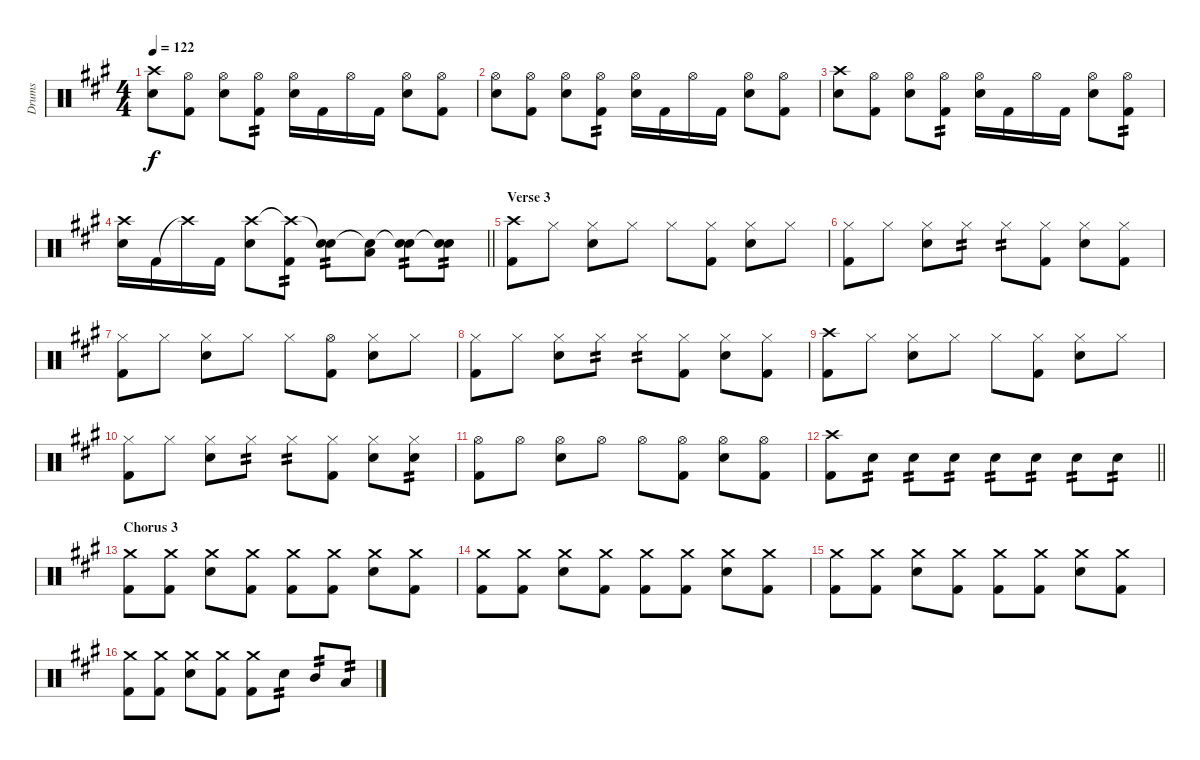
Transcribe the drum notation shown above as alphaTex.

\track ("Drums" "Drums") {instrument percussion}
\staff {score}
\articulation defaults
\ts (4 4)
\tempo 122
\clef neutral
\ks f#minor
("Crash high (hit)" "Snare (hit) 2").8{dy f} ("Hi-Hat (open)" "Kick (hit) 2").8 ("Hi-Hat (open)" "Snare (hit) 2").8 ("Hi-Hat (open)" "Kick (hit) 2").8{tp 2} ("Hi-Hat (open)" "Snare (hit) 2").16 "Kick (hit) 2".16 "Hi-Hat (open)".16 "Kick (hit) 2".16 ("Hi-Hat (open)" "Snare (hit) 2").8 ("Hi-Hat (open)" "Kick (hit) 2").8 |
("Hi-Hat (open)" "Snare (hit) 2").8 ("Hi-Hat (open)" "Kick (hit) 2").8 ("Hi-Hat (open)" "Snare (hit) 2").8 ("Hi-Hat (open)" "Kick (hit) 2").8{tp 2} ("Hi-Hat (open)" "Snare (hit) 2").16 "Kick (hit) 2".16 "Hi-Hat (open)".16 "Kick (hit) 2".16 ("Hi-Hat (open)" "Snare (hit) 2").8 ("Hi-Hat (open)" "Kick (hit) 2").8 |
("Crash high (hit)" "Snare (hit) 2").8 ("Hi-Hat (open)" "Kick (hit) 2").8 ("Hi-Hat (open)" "Snare (hit) 2").8 ("Hi-Hat (open)" "Kick (hit) 2").8{tp 2} ("Hi-Hat (open)" "Snare (hit) 2").16 "Kick (hit) 2".16 "Hi-Hat (open)".16 "Kick (hit) 2".16 ("Hi-Hat (open)" "Snare (hit) 2").8 ("Hi-Hat (open)" "Kick (hit) 2").8{tp 2} |
\barLineRight lightlight
("Crash high (hit)" "Snare (hit) 2").16 "Kick (hit) 2".16 "Crash high (hit)"{t}.16 "Kick (hit) 2".16 ("Crash high (hit)" "Snare (hit) 2").8 ("Crash high (hit)"{t} "Kick (hit) 2").8{tp 2} ("Snare (hit)"{t} "Snare (hit) 2").8{tp 2} ("Snare (hit)"{t} "Low Tom (hit)").8 ("Snare (hit)"{t} "Snare (hit) 2").8{tp 2} ("Snare (hit)"{t} "Snare (hit) 2").8{tp 2} |
\section ("" "Verse 3")
("Crash high (hit)" "Kick (hit) 2").8 "Hi-Hat (closed)".8 ("Hi-Hat (closed)" "Snare (hit) 2").8 "Hi-Hat (closed)".8 "Hi-Hat (closed)".8 ("Hi-Hat (closed)" "Kick (hit) 2").8 ("Hi-Hat (closed)" "Snare (hit) 2").8 "Hi-Hat (closed)".8 |
("Hi-Hat (closed)" "Kick (hit) 2").8 "Hi-Hat (closed)".8 ("Hi-Hat (closed)" "Snare (hit) 2").8 "Hi-Hat (closed)".8{tp 2} "Hi-Hat (closed)".8{tp 2} ("Hi-Hat (closed)" "Kick (hit) 2").8 ("Hi-Hat (closed)" "Snare (hit) 2").8 ("Hi-Hat (closed)" "Kick (hit) 2").8 |
("Hi-Hat (closed)" "Kick (hit) 2").8 "Hi-Hat (closed)".8 ("Hi-Hat (closed)" "Snare (hit) 2").8 "Hi-Hat (closed)".8 "Hi-Hat (closed)".8 ("Hi-Hat (open)" "Kick (hit) 2").8 ("Hi-Hat (closed)" "Snare (hit) 2").8 "Hi-Hat (closed)".8 |
("Hi-Hat (closed)" "Kick (hit) 2").8 "Hi-Hat (closed)".8 ("Hi-Hat (closed)" "Snare (hit) 2").8 "Hi-Hat (closed)".8{tp 2} "Hi-Hat (closed)".8{tp 2} ("Hi-Hat (closed)" "Kick (hit) 2").8 ("Hi-Hat (closed)" "Snare (hit) 2").8 ("Hi-Hat (closed)" "Kick (hit) 2").8 |
("Crash high (hit)" "Kick (hit) 2").8 "Hi-Hat (closed)".8 ("Hi-Hat (closed)" "Snare (hit) 2").8 "Hi-Hat (closed)".8 "Hi-Hat (closed)".8 ("Hi-Hat (closed)" "Kick (hit) 2").8 ("Hi-Hat (closed)" "Snare (hit) 2").8 "Hi-Hat (closed)".8 |
("Hi-Hat (closed)" "Kick (hit) 2").8 "Hi-Hat (closed)".8 ("Hi-Hat (closed)" "Snare (hit) 2").8 "Hi-Hat (closed)".8{tp 2} "Hi-Hat (closed)".8{tp 2} ("Hi-Hat (closed)" "Kick (hit) 2").8 ("Hi-Hat (closed)" "Snare (hit) 2").8 ("Hi-Hat (closed)" "Snare (hit) 2").8{tp 2} |
("Hi-Hat (open)" "Kick (hit) 2").8 "Hi-Hat (open)".8 ("Hi-Hat (open)" "Snare (hit) 2").8 "Hi-Hat (open)".8 "Hi-Hat (open)".8 ("Hi-Hat (open)" "Kick (hit) 2").8 ("Hi-Hat (open)" "Snare (hit) 2").8 ("Hi-Hat (open)" "Kick (hit) 2").8 |
\barLineRight lightlight
("Crash high (hit)" "Kick (hit) 2").8 "Snare (hit) 2".8{tp 2} "Snare (hit) 2".8{tp 2} "Snare (hit) 2".8{tp 2} "Snare (hit) 2".8{tp 2} "Snare (hit) 2".8{tp 2} "Snare (hit) 2".8{tp 2} "Snare (hit) 2".8{tp 2} |
\section ("" "Chorus 3")
("Crash medium (hit)" "Kick (hit) 2").8 ("Crash medium (hit)" "Kick (hit) 2").8 ("Crash medium (hit)" "Snare (hit) 2").8 ("Crash medium (hit)" "Kick (hit) 2").8 ("Crash medium (hit)" "Kick (hit) 2").8 ("Crash medium (hit)" "Kick (hit) 2").8 ("Crash medium (hit)" "Snare (hit) 2").8 ("Crash medium (hit)" "Kick (hit) 2").8 |
("Crash medium (hit)" "Kick (hit) 2").8 ("Crash medium (hit)" "Kick (hit) 2").8 ("Crash medium (hit)" "Snare (hit) 2").8 ("Crash medium (hit)" "Kick (hit) 2").8 ("Crash medium (hit)" "Kick (hit) 2").8 ("Crash medium (hit)" "Kick (hit) 2").8 ("Crash medium (hit)" "Snare (hit) 2").8 ("Crash medium (hit)" "Kick (hit) 2").8 |
("Crash medium (hit)" "Kick (hit) 2").8 ("Crash medium (hit)" "Kick (hit) 2").8 ("Crash medium (hit)" "Snare (hit) 2").8 ("Crash medium (hit)" "Kick (hit) 2").8 ("Crash medium (hit)" "Kick (hit) 2").8 ("Crash medium (hit)" "Kick (hit) 2").8 ("Crash medium (hit)" "Snare (hit) 2").8 ("Crash medium (hit)" "Kick (hit) 2").8 |
("Crash medium (hit)" "Kick (hit) 2").8 ("Crash medium (hit)" "Kick (hit) 2").8 ("Crash medium (hit)" "Snare (hit) 2").8 ("Crash medium (hit)" "Kick (hit) 2").8 ("Crash medium (hit)" "Kick (hit) 2").8 "Snare (hit) 2".8{tp 2} "Mid Tom (hit)".8{tp 2} "Low Tom (hit)".8{tp 2}
